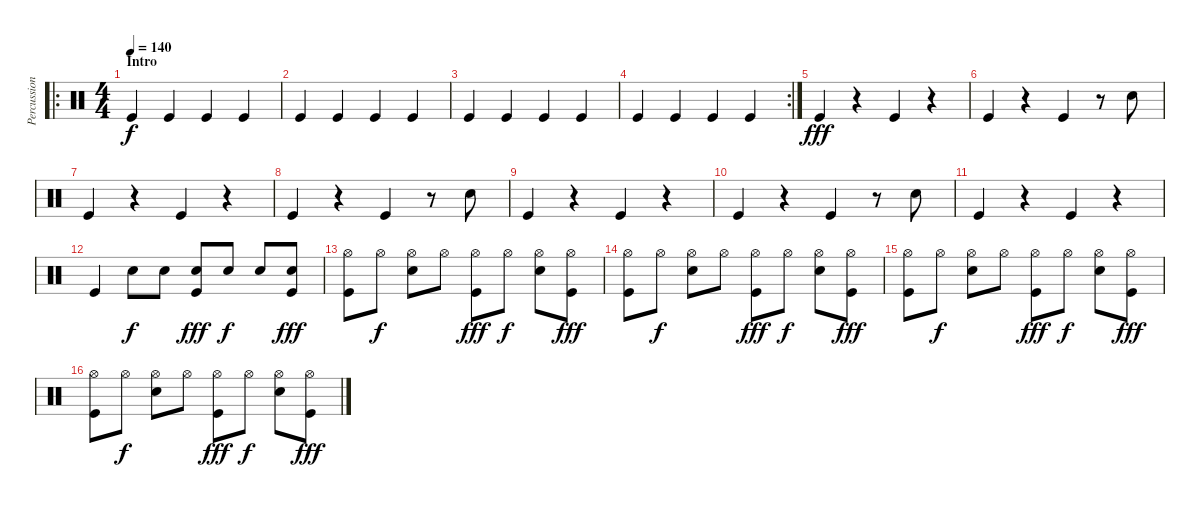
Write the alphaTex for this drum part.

\track ("Percussion" "Percussion") {instrument percussion}
\staff {score}
\articulation defaults
\ro
\ts (4 4)
\section ("" "Intro")
\tempo 140
\clef neutral
\ks c "Kick (hit)".4{dy f} "Kick (hit)".4 "Kick (hit)".4 "Kick (hit)".4
|
"Kick (hit)".4 "Kick (hit)".4 "Kick (hit)".4 "Kick (hit)".4 |
"Kick (hit)".4 "Kick (hit)".4 "Kick (hit)".4 "Kick (hit)".4 |
\rc 2 "Kick (hit)".4 "Kick (hit)".4 "Kick (hit)".4 "Kick (hit)".4
|
"Kick (hit)".4{dy fff} r.4 "Kick (hit)".4 r.4 |
"Kick (hit)".4 r.4 "Kick (hit)".4 r.8 "Metronome (bell)".8 |
"Kick (hit)".4 r.4 "Kick (hit)".4 r.4 |
"Kick (hit)".4 r.4 "Kick (hit)".4 r.8 "Metronome (bell)".8 |
"Kick (hit)".4 r.4 "Kick (hit)".4 r.4 |
"Kick (hit)".4 r.4 "Kick (hit)".4 r.8 "Metronome (bell)".8 |
"Kick (hit)".4 r.4 "Kick (hit)".4 r.4 |
"Kick (hit)".4 "Metronome (bell)".8{dy f} "Metronome (bell)".8 ("Kick (hit)" "Metronome (bell)").8{dy fff} "Metronome (bell)".8{dy f} "Metronome (bell)".8 ("Kick (hit)" "Metronome (bell)").8{dy fff} |
("Kick (hit)" "Hi-Hat (open)").8 "Hi-Hat (open)".8{dy f} ("Metronome (bell)" "Hi-Hat (open)").8 "Hi-Hat (open)".8 ("Kick (hit)" "Hi-Hat (open)").8{dy fff} "Hi-Hat (open)".8{dy f} ("Metronome (bell)" "Hi-Hat (open)").8 ("Kick (hit)" "Hi-Hat (open)").8{dy fff} |
("Kick (hit)" "Hi-Hat (open)").8 "Hi-Hat (open)".8{dy f} ("Metronome (bell)" "Hi-Hat (open)").8 "Hi-Hat (open)".8 ("Kick (hit)" "Hi-Hat (open)").8{dy fff} "Hi-Hat (open)".8{dy f} ("Metronome (bell)" "Hi-Hat (open)").8 ("Kick (hit)" "Hi-Hat (open)").8{dy fff} |
("Kick (hit)" "Hi-Hat (open)").8 "Hi-Hat (open)".8{dy f} ("Metronome (bell)" "Hi-Hat (open)").8 "Hi-Hat (open)".8 ("Kick (hit)" "Hi-Hat (open)").8{dy fff} "Hi-Hat (open)".8{dy f} ("Metronome (bell)" "Hi-Hat (open)").8 ("Kick (hit)" "Hi-Hat (open)").8{dy fff} |
("Kick (hit)" "Hi-Hat (open)").8 "Hi-Hat (open)".8{dy f} ("Metronome (bell)" "Hi-Hat (open)").8 "Hi-Hat (open)".8 ("Kick (hit)" "Hi-Hat (open)").8{dy fff} "Hi-Hat (open)".8{dy f} ("Metronome (bell)" "Hi-Hat (open)").8 ("Kick (hit)" "Hi-Hat (open)").8{dy fff}
